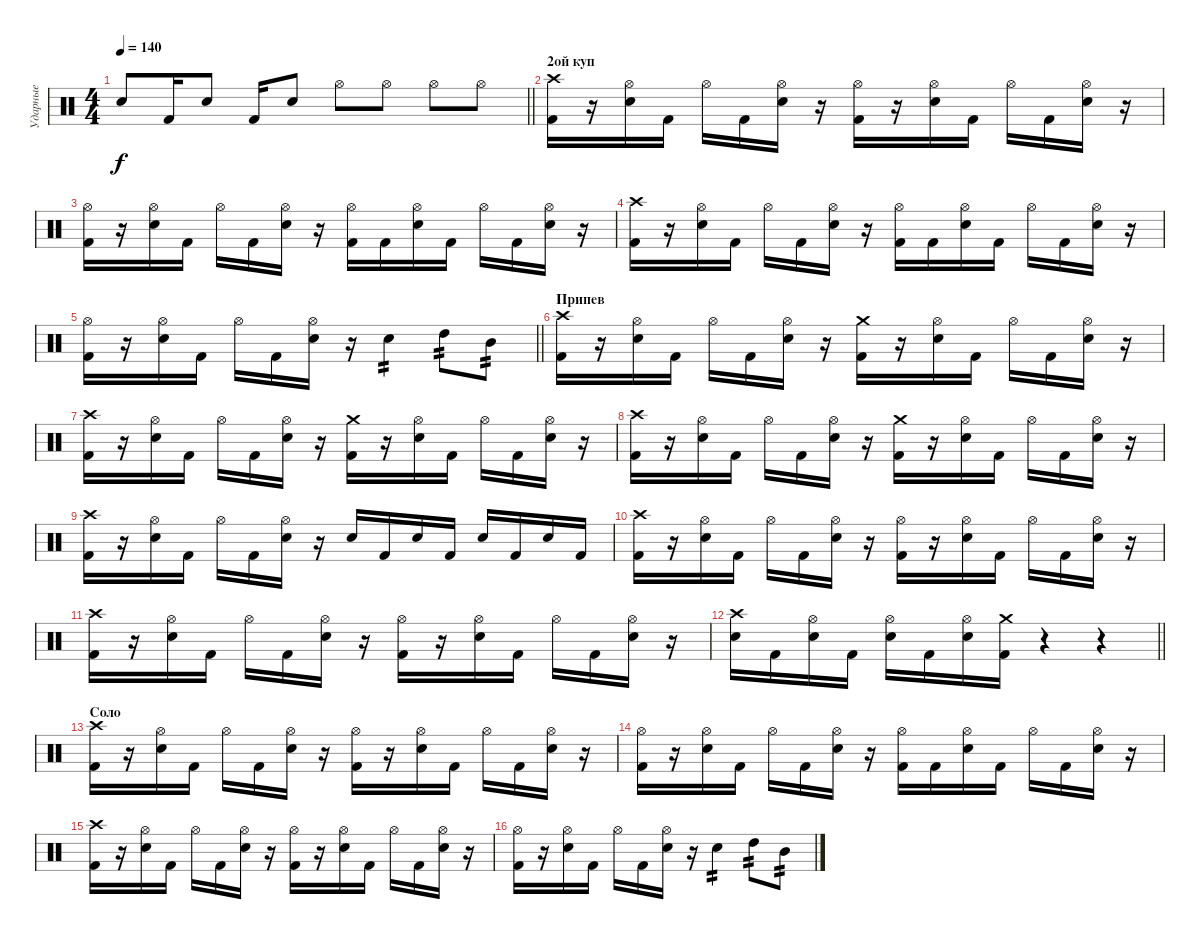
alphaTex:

\track ("Ударные" "Ударные") {instrument percussion}
\staff {score}
\articulation defaults
\ts (4 4)
\tempo 140
\clef neutral
\barLineRight lightlight
\ks c "Electric Snare (hit)".8{dy f} "Kick (hit) 2".16 "Electric Snare (hit)".8 "Kick (hit) 2".16 "Electric Snare (hit)".8 "Hi-Hat (open)".8 "Hi-Hat (open)".8 "Hi-Hat (open)".8 "Hi-Hat (open)".8
|
\section ("" "2ой куп")
("Crash high (hit)" "Kick (hit) 2").16 r.16 ("Hi-Hat (open)" "Electric Snare (hit)").16 "Kick (hit) 2".16 "Hi-Hat (open)".16 "Kick (hit) 2".16 ("Hi-Hat (open)" "Electric Snare (hit)").16 r.16 ("Hi-Hat (open)" "Kick (hit) 2").16 r.16 ("Hi-Hat (open)" "Electric Snare (hit)").16 "Kick (hit) 2".16 "Hi-Hat (open)".16 "Kick (hit) 2".16 ("Hi-Hat (open)" "Electric Snare (hit)").16 r.16 |
("Hi-Hat (open)" "Kick (hit) 2").16 r.16 ("Hi-Hat (open)" "Electric Snare (hit)").16 "Kick (hit) 2".16 "Hi-Hat (open)".16 "Kick (hit) 2".16 ("Hi-Hat (open)" "Electric Snare (hit)").16 r.16 ("Hi-Hat (open)" "Kick (hit) 2").16 "Kick (hit) 2".16 ("Hi-Hat (open)" "Electric Snare (hit)").16 "Kick (hit) 2".16 "Hi-Hat (open)".16 "Kick (hit) 2".16 ("Hi-Hat (open)" "Electric Snare (hit)").16 r.16 |
("Crash high (hit)" "Kick (hit) 2").16 r.16 ("Hi-Hat (open)" "Electric Snare (hit)").16 "Kick (hit) 2".16 "Hi-Hat (open)".16 "Kick (hit) 2".16 ("Hi-Hat (open)" "Electric Snare (hit)").16 r.16 ("Hi-Hat (open)" "Kick (hit) 2").16 "Kick (hit) 2".16 ("Hi-Hat (open)" "Electric Snare (hit)").16 "Kick (hit) 2".16 "Hi-Hat (open)".16 "Kick (hit) 2".16 ("Hi-Hat (open)" "Electric Snare (hit)").16 r.16 |
\barLineRight lightlight
("Hi-Hat (open)" "Kick (hit) 2").16 r.16 ("Hi-Hat (open)" "Electric Snare (hit)").16 "Kick (hit) 2".16 "Hi-Hat (open)".16 "Kick (hit) 2".16 ("Hi-Hat (open)" "Electric Snare (hit)").16 r.16 "Electric Snare (hit)".4{tp 2} "High Tom (hit)".8{tp 2} "Mid Tom (hit)".8{tp 2} |
\section ("" "Припев")
("Crash high (hit)" "Kick (hit) 2").16 r.16 ("Hi-Hat (open)" "Electric Snare (hit)").16 "Kick (hit) 2".16 "Hi-Hat (open)".16 "Kick (hit) 2".16 ("Hi-Hat (open)" "Electric Snare (hit)").16 r.16 ("Crash medium (hit)" "Kick (hit) 2").16 r.16 ("Hi-Hat (open)" "Electric Snare (hit)").16 "Kick (hit) 2".16 "Hi-Hat (open)".16 "Kick (hit) 2".16 ("Hi-Hat (open)" "Electric Snare (hit)").16 r.16 |
("Crash high (hit)" "Kick (hit) 2").16 r.16 ("Hi-Hat (open)" "Electric Snare (hit)").16 "Kick (hit) 2".16 "Hi-Hat (open)".16 "Kick (hit) 2".16 ("Hi-Hat (open)" "Electric Snare (hit)").16 r.16 ("Crash medium (hit)" "Kick (hit) 2").16 r.16 ("Hi-Hat (open)" "Electric Snare (hit)").16 "Kick (hit) 2".16 "Hi-Hat (open)".16 "Kick (hit) 2".16 ("Hi-Hat (open)" "Electric Snare (hit)").16 r.16 |
("Crash high (hit)" "Kick (hit) 2").16 r.16 ("Hi-Hat (open)" "Electric Snare (hit)").16 "Kick (hit) 2".16 "Hi-Hat (open)".16 "Kick (hit) 2".16 ("Hi-Hat (open)" "Electric Snare (hit)").16 r.16 ("Crash medium (hit)" "Kick (hit) 2").16 r.16 ("Hi-Hat (open)" "Electric Snare (hit)").16 "Kick (hit) 2".16 "Hi-Hat (open)".16 "Kick (hit) 2".16 ("Hi-Hat (open)" "Electric Snare (hit)").16 r.16 |
("Crash high (hit)" "Kick (hit) 2").16 r.16 ("Hi-Hat (open)" "Electric Snare (hit)").16 "Kick (hit) 2".16 "Hi-Hat (open)".16 "Kick (hit) 2".16 ("Hi-Hat (open)" "Electric Snare (hit)").16 r.16 "Electric Snare (hit)".16 "Kick (hit) 2".16 "Electric Snare (hit)".16 "Kick (hit) 2".16 "Electric Snare (hit)".16 "Kick (hit) 2".16 "Electric Snare (hit)".16 "Kick (hit) 2".16 |
("Crash high (hit)" "Kick (hit) 2").16 r.16 ("Hi-Hat (open)" "Electric Snare (hit)").16 "Kick (hit) 2".16 "Hi-Hat (open)".16 "Kick (hit) 2".16 ("Hi-Hat (open)" "Electric Snare (hit)").16 r.16 ("Hi-Hat (open)" "Kick (hit) 2").16 r.16 ("Hi-Hat (open)" "Electric Snare (hit)").16 "Kick (hit) 2".16 "Hi-Hat (open)".16 "Kick (hit) 2".16 ("Hi-Hat (open)" "Electric Snare (hit)").16 r.16 |
("Crash high (hit)" "Kick (hit) 2").16 r.16 ("Hi-Hat (open)" "Electric Snare (hit)").16 "Kick (hit) 2".16 "Hi-Hat (open)".16 "Kick (hit) 2".16 ("Hi-Hat (open)" "Electric Snare (hit)").16 r.16 ("Hi-Hat (open)" "Kick (hit) 2").16 r.16 ("Hi-Hat (open)" "Electric Snare (hit)").16 "Kick (hit) 2".16 "Hi-Hat (open)".16 "Kick (hit) 2".16 ("Hi-Hat (open)" "Electric Snare (hit)").16 r.16 |
\barLineRight lightlight
("Crash high (hit)" "Electric Snare (hit)").16 "Kick (hit) 2".16 ("Hi-Hat (open)" "Electric Snare (hit)").16 "Kick (hit) 2".16 ("Hi-Hat (open)" "Electric Snare (hit)").16 "Kick (hit) 2".16 ("Hi-Hat (open)" "Electric Snare (hit)").16 ("Crash medium (hit)" "Kick (hit) 2").16 r.4 r.4 |
\section ("" "Соло")
("Crash high (hit)" "Kick (hit) 2").16 r.16 ("Hi-Hat (open)" "Electric Snare (hit)").16 "Kick (hit) 2".16 "Hi-Hat (open)".16 "Kick (hit) 2".16 ("Hi-Hat (open)" "Electric Snare (hit)").16 r.16 ("Hi-Hat (open)" "Kick (hit) 2").16 r.16 ("Hi-Hat (open)" "Electric Snare (hit)").16 "Kick (hit) 2".16 "Hi-Hat (open)".16 "Kick (hit) 2".16 ("Hi-Hat (open)" "Electric Snare (hit)").16 r.16 |
("Hi-Hat (open)" "Kick (hit) 2").16 r.16 ("Hi-Hat (open)" "Electric Snare (hit)").16 "Kick (hit) 2".16 "Hi-Hat (open)".16 "Kick (hit) 2".16 ("Hi-Hat (open)" "Electric Snare (hit)").16 r.16 ("Hi-Hat (open)" "Kick (hit) 2").16 "Kick (hit) 2".16 ("Hi-Hat (open)" "Electric Snare (hit)").16 "Kick (hit) 2".16 "Hi-Hat (open)".16 "Kick (hit) 2".16 ("Hi-Hat (open)" "Electric Snare (hit)").16 r.16 |
("Crash high (hit)" "Kick (hit) 2").16 r.16 ("Hi-Hat (open)" "Electric Snare (hit)").16 "Kick (hit) 2".16 "Hi-Hat (open)".16 "Kick (hit) 2".16 ("Hi-Hat (open)" "Electric Snare (hit)").16 r.16 ("Hi-Hat (open)" "Kick (hit) 2").16 r.16 ("Hi-Hat (open)" "Electric Snare (hit)").16 "Kick (hit) 2".16 "Hi-Hat (open)".16 "Kick (hit) 2".16 ("Hi-Hat (open)" "Electric Snare (hit)").16 r.16 |
("Hi-Hat (open)" "Kick (hit) 2").16 r.16 ("Hi-Hat (open)" "Electric Snare (hit)").16 "Kick (hit) 2".16 "Hi-Hat (open)".16 "Kick (hit) 2".16 ("Hi-Hat (open)" "Electric Snare (hit)").16 r.16 "Electric Snare (hit)".4{tp 2} "High Tom (hit)".8{tp 2} "Mid Tom (hit)".8{tp 2}
